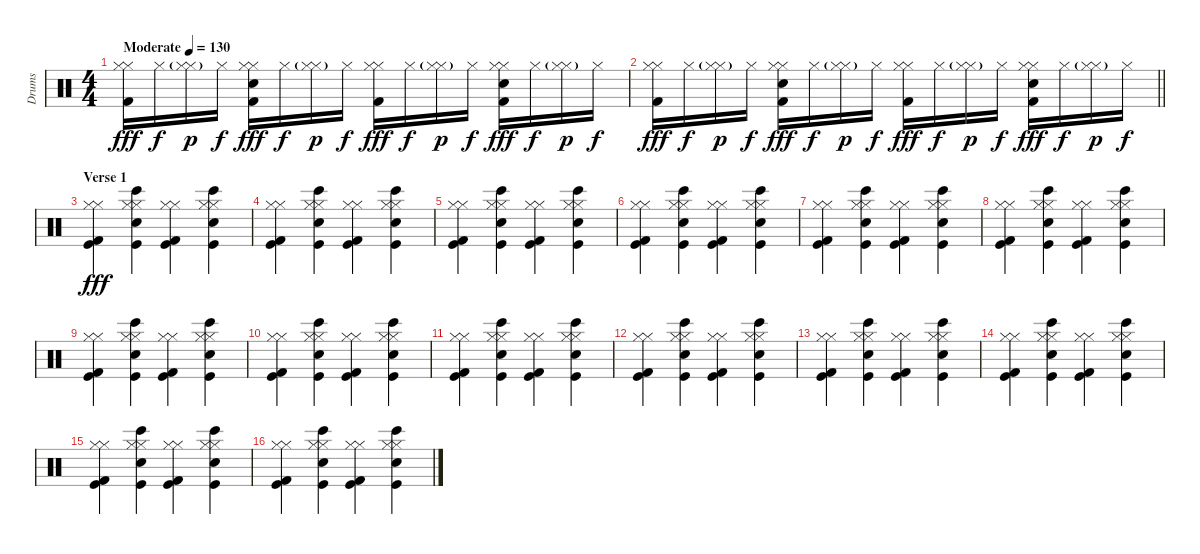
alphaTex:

\track ("Drums" "Drums") {instrument percussion}
\staff {score}
\articulation defaults
\ts (4 4)
\tempo (130 "Moderate")
\clef neutral
\ks c
("Hi-Hat (closed)" "Hi-Hat (closed)" "Kick (hit) 2").16{dy fff} "Hi-Hat (closed)".16{dy f} ("Hi-Hat (closed)" "Hi-Hat (closed)"{g}).16{dy p} "Hi-Hat (closed)".16{dy f} ("Hi-Hat (closed)" "Hi-Hat (closed)" "Snare (hit) 2" "Kick (hit) 2").16{dy fff} "Hi-Hat (closed)".16{dy f} ("Hi-Hat (closed)" "Hi-Hat (closed)"{g}).16{dy p} "Hi-Hat (closed)".16{dy f} ("Hi-Hat (closed)" "Hi-Hat (closed)" "Kick (hit) 2").16{dy fff} "Hi-Hat (closed)".16{dy f} ("Hi-Hat (closed)" "Hi-Hat (closed)"{g}).16{dy p} "Hi-Hat (closed)".16{dy f} ("Hi-Hat (closed)" "Hi-Hat (closed)" "Snare (hit) 2" "Kick (hit) 2").16{dy fff} "Hi-Hat (closed)".16{dy f} ("Hi-Hat (closed)" "Hi-Hat (closed)"{g}).16{dy p} "Hi-Hat (closed)".16{dy f} |
\barLineRight lightlight
("Hi-Hat (closed)" "Hi-Hat (closed)" "Kick (hit) 2").16{dy fff} "Hi-Hat (closed)".16{dy f} ("Hi-Hat (closed)" "Hi-Hat (closed)"{g}).16{dy p} "Hi-Hat (closed)".16{dy f} ("Hi-Hat (closed)" "Hi-Hat (closed)" "Snare (hit) 2" "Kick (hit) 2").16{dy fff} "Hi-Hat (closed)".16{dy f} ("Hi-Hat (closed)" "Hi-Hat (closed)"{g}).16{dy p} "Hi-Hat (closed)".16{dy f} ("Hi-Hat (closed)" "Hi-Hat (closed)" "Kick (hit) 2").16{dy fff} "Hi-Hat (closed)".16{dy f} ("Hi-Hat (closed)" "Hi-Hat (closed)"{g}).16{dy p} "Hi-Hat (closed)".16{dy f} ("Hi-Hat (closed)" "Hi-Hat (closed)" "Snare (hit) 2" "Kick (hit) 2").16{dy fff} "Hi-Hat (closed)".16{dy f} ("Hi-Hat (closed)" "Hi-Hat (closed)"{g}).16{dy p} "Hi-Hat (closed)".16{dy f} |
\section ("" "Verse 1")
("Hi-Hat (closed)" "Hi-Hat (closed)" "Kick (hit) 2" "Kick (hit)").4{dy fff} ("Hi-Hat (closed)" "Bongo High (hit)" "Hi-Hat (closed)" "Snare (hit) 2" "Kick (hit)").4 ("Hi-Hat (closed)" "Hi-Hat (closed)" "Kick (hit) 2" "Kick (hit)").4 ("Hi-Hat (closed)" "Bongo High (hit)" "Hi-Hat (closed)" "Snare (hit) 2" "Kick (hit)").4 |
("Hi-Hat (closed)" "Hi-Hat (closed)" "Kick (hit) 2" "Kick (hit)").4 ("Hi-Hat (closed)" "Bongo High (hit)" "Hi-Hat (closed)" "Snare (hit) 2" "Kick (hit)").4 ("Hi-Hat (closed)" "Hi-Hat (closed)" "Kick (hit) 2" "Kick (hit)").4 ("Hi-Hat (closed)" "Bongo High (hit)" "Hi-Hat (closed)" "Snare (hit) 2" "Kick (hit)").4 |
("Hi-Hat (closed)" "Hi-Hat (closed)" "Kick (hit) 2" "Kick (hit)").4 ("Hi-Hat (closed)" "Bongo High (hit)" "Hi-Hat (closed)" "Snare (hit) 2" "Kick (hit)").4 ("Hi-Hat (closed)" "Hi-Hat (closed)" "Kick (hit) 2" "Kick (hit)").4 ("Hi-Hat (closed)" "Bongo High (hit)" "Hi-Hat (closed)" "Snare (hit) 2" "Kick (hit)").4 |
("Hi-Hat (closed)" "Hi-Hat (closed)" "Kick (hit) 2" "Kick (hit)").4 ("Hi-Hat (closed)" "Bongo High (hit)" "Hi-Hat (closed)" "Snare (hit) 2" "Kick (hit)").4 ("Hi-Hat (closed)" "Hi-Hat (closed)" "Kick (hit) 2" "Kick (hit)").4 ("Hi-Hat (closed)" "Bongo High (hit)" "Hi-Hat (closed)" "Snare (hit) 2" "Kick (hit)").4 |
("Hi-Hat (closed)" "Hi-Hat (closed)" "Kick (hit) 2" "Kick (hit)").4 ("Hi-Hat (closed)" "Bongo High (hit)" "Hi-Hat (closed)" "Snare (hit) 2" "Kick (hit)").4 ("Hi-Hat (closed)" "Hi-Hat (closed)" "Kick (hit) 2" "Kick (hit)").4 ("Hi-Hat (closed)" "Bongo High (hit)" "Hi-Hat (closed)" "Snare (hit) 2" "Kick (hit)").4 |
("Hi-Hat (closed)" "Hi-Hat (closed)" "Kick (hit) 2" "Kick (hit)").4 ("Hi-Hat (closed)" "Bongo High (hit)" "Hi-Hat (closed)" "Snare (hit) 2" "Kick (hit)").4 ("Hi-Hat (closed)" "Hi-Hat (closed)" "Kick (hit) 2" "Kick (hit)").4 ("Hi-Hat (closed)" "Bongo High (hit)" "Hi-Hat (closed)" "Snare (hit) 2" "Kick (hit)").4 |
("Hi-Hat (closed)" "Hi-Hat (closed)" "Kick (hit) 2" "Kick (hit)").4 ("Hi-Hat (closed)" "Bongo High (hit)" "Hi-Hat (closed)" "Snare (hit) 2" "Kick (hit)").4 ("Hi-Hat (closed)" "Hi-Hat (closed)" "Kick (hit) 2" "Kick (hit)").4 ("Hi-Hat (closed)" "Bongo High (hit)" "Hi-Hat (closed)" "Snare (hit) 2" "Kick (hit)").4 |
("Hi-Hat (closed)" "Hi-Hat (closed)" "Kick (hit) 2" "Kick (hit)").4 ("Hi-Hat (closed)" "Bongo High (hit)" "Hi-Hat (closed)" "Snare (hit) 2" "Kick (hit)").4 ("Hi-Hat (closed)" "Hi-Hat (closed)" "Kick (hit) 2" "Kick (hit)").4 ("Hi-Hat (closed)" "Bongo High (hit)" "Hi-Hat (closed)" "Snare (hit) 2" "Kick (hit)").4 |
("Hi-Hat (closed)" "Hi-Hat (closed)" "Kick (hit) 2" "Kick (hit)").4 ("Hi-Hat (closed)" "Bongo High (hit)" "Hi-Hat (closed)" "Snare (hit) 2" "Kick (hit)").4 ("Hi-Hat (closed)" "Hi-Hat (closed)" "Kick (hit) 2" "Kick (hit)").4 ("Hi-Hat (closed)" "Bongo High (hit)" "Hi-Hat (closed)" "Snare (hit) 2" "Kick (hit)").4 |
("Hi-Hat (closed)" "Hi-Hat (closed)" "Kick (hit) 2" "Kick (hit)").4 ("Hi-Hat (closed)" "Bongo High (hit)" "Hi-Hat (closed)" "Snare (hit) 2" "Kick (hit)").4 ("Hi-Hat (closed)" "Hi-Hat (closed)" "Kick (hit) 2" "Kick (hit)").4 ("Hi-Hat (closed)" "Bongo High (hit)" "Hi-Hat (closed)" "Snare (hit) 2" "Kick (hit)").4 |
("Hi-Hat (closed)" "Hi-Hat (closed)" "Kick (hit) 2" "Kick (hit)").4 ("Hi-Hat (closed)" "Bongo High (hit)" "Hi-Hat (closed)" "Snare (hit) 2" "Kick (hit)").4 ("Hi-Hat (closed)" "Hi-Hat (closed)" "Kick (hit) 2" "Kick (hit)").4 ("Hi-Hat (closed)" "Bongo High (hit)" "Hi-Hat (closed)" "Snare (hit) 2" "Kick (hit)").4 |
("Hi-Hat (closed)" "Hi-Hat (closed)" "Kick (hit) 2" "Kick (hit)").4 ("Hi-Hat (closed)" "Bongo High (hit)" "Hi-Hat (closed)" "Snare (hit) 2" "Kick (hit)").4 ("Hi-Hat (closed)" "Hi-Hat (closed)" "Kick (hit) 2" "Kick (hit)").4 ("Hi-Hat (closed)" "Bongo High (hit)" "Hi-Hat (closed)" "Snare (hit) 2" "Kick (hit)").4 |
("Hi-Hat (closed)" "Hi-Hat (closed)" "Kick (hit) 2" "Kick (hit)").4 ("Hi-Hat (closed)" "Bongo High (hit)" "Hi-Hat (closed)" "Snare (hit) 2" "Kick (hit)").4 ("Hi-Hat (closed)" "Hi-Hat (closed)" "Kick (hit) 2" "Kick (hit)").4 ("Hi-Hat (closed)" "Bongo High (hit)" "Hi-Hat (closed)" "Snare (hit) 2" "Kick (hit)").4 |
("Hi-Hat (closed)" "Hi-Hat (closed)" "Kick (hit) 2" "Kick (hit)").4 ("Hi-Hat (closed)" "Bongo High (hit)" "Hi-Hat (closed)" "Snare (hit) 2" "Kick (hit)").4 ("Hi-Hat (closed)" "Hi-Hat (closed)" "Kick (hit) 2" "Kick (hit)").4 ("Hi-Hat (closed)" "Bongo High (hit)" "Hi-Hat (closed)" "Snare (hit) 2" "Kick (hit)").4
